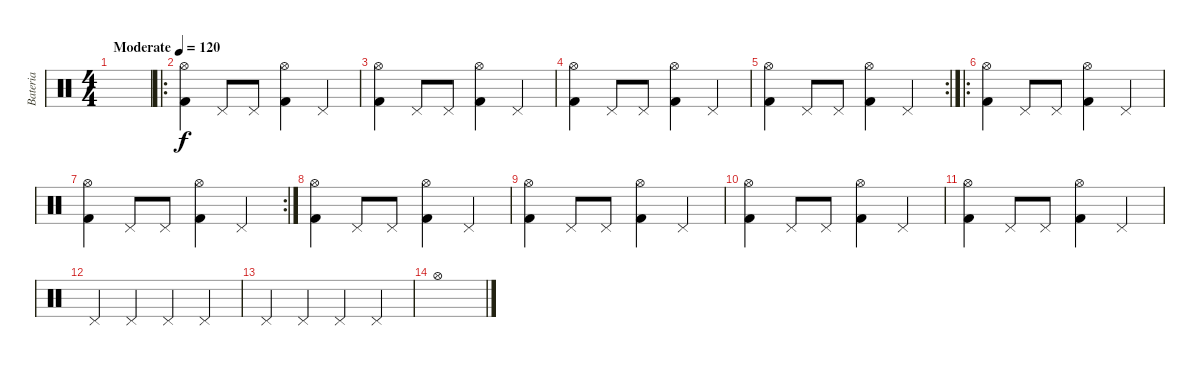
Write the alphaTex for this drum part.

\track ("Bateria" "Bateria") {instrument percussion}
\staff {score}
\articulation defaults
\ts (4 4)
\tempo (120 "Moderate")
\clef neutral
\ks c
|
\ro
("Hi-Hat (open)" "Kick (hit) 2").4 "Pedal Hi-Hat (hit)".8 "Pedal Hi-Hat (hit)".8 ("Hi-Hat (open)" "Kick (hit) 2").4 "Pedal Hi-Hat (hit)".4 |
("Hi-Hat (open)" "Kick (hit) 2").4 "Pedal Hi-Hat (hit)".8 "Pedal Hi-Hat (hit)".8 ("Hi-Hat (open)" "Kick (hit) 2").4 "Pedal Hi-Hat (hit)".4 |
("Hi-Hat (open)" "Kick (hit) 2").4 "Pedal Hi-Hat (hit)".8 "Pedal Hi-Hat (hit)".8 ("Hi-Hat (open)" "Kick (hit) 2").4 "Pedal Hi-Hat (hit)".4 |
\rc 2
("Hi-Hat (open)" "Kick (hit) 2").4 "Pedal Hi-Hat (hit)".8 "Pedal Hi-Hat (hit)".8 ("Hi-Hat (open)" "Kick (hit) 2").4 "Pedal Hi-Hat (hit)".4 |
\ro
("Hi-Hat (open)" "Kick (hit) 2").4 "Pedal Hi-Hat (hit)".8 "Pedal Hi-Hat (hit)".8 ("Hi-Hat (open)" "Kick (hit) 2").4 "Pedal Hi-Hat (hit)".4 |
\rc 2
("Hi-Hat (open)" "Kick (hit) 2").4 "Pedal Hi-Hat (hit)".8 "Pedal Hi-Hat (hit)".8 ("Hi-Hat (open)" "Kick (hit) 2").4 "Pedal Hi-Hat (hit)".4 |
("Hi-Hat (open)" "Kick (hit) 2").4 "Pedal Hi-Hat (hit)".8 "Pedal Hi-Hat (hit)".8 ("Hi-Hat (open)" "Kick (hit) 2").4 "Pedal Hi-Hat (hit)".4 |
("Hi-Hat (open)" "Kick (hit) 2").4 "Pedal Hi-Hat (hit)".8 "Pedal Hi-Hat (hit)".8 ("Hi-Hat (open)" "Kick (hit) 2").4 "Pedal Hi-Hat (hit)".4 |
("Hi-Hat (open)" "Kick (hit) 2").4 "Pedal Hi-Hat (hit)".8 "Pedal Hi-Hat (hit)".8 ("Hi-Hat (open)" "Kick (hit) 2").4 "Pedal Hi-Hat (hit)".4 |
("Hi-Hat (open)" "Kick (hit) 2").4 "Pedal Hi-Hat (hit)".8 "Pedal Hi-Hat (hit)".8 ("Hi-Hat (open)" "Kick (hit) 2").4 "Pedal Hi-Hat (hit)".4 |
"Pedal Hi-Hat (hit)".4 "Pedal Hi-Hat (hit)".4 "Pedal Hi-Hat (hit)".4 "Pedal Hi-Hat (hit)".4 |
"Pedal Hi-Hat (hit)".4 "Pedal Hi-Hat (hit)".4 "Pedal Hi-Hat (hit)".4 "Pedal Hi-Hat (hit)".4 |
"Hi-Hat (open)".1
